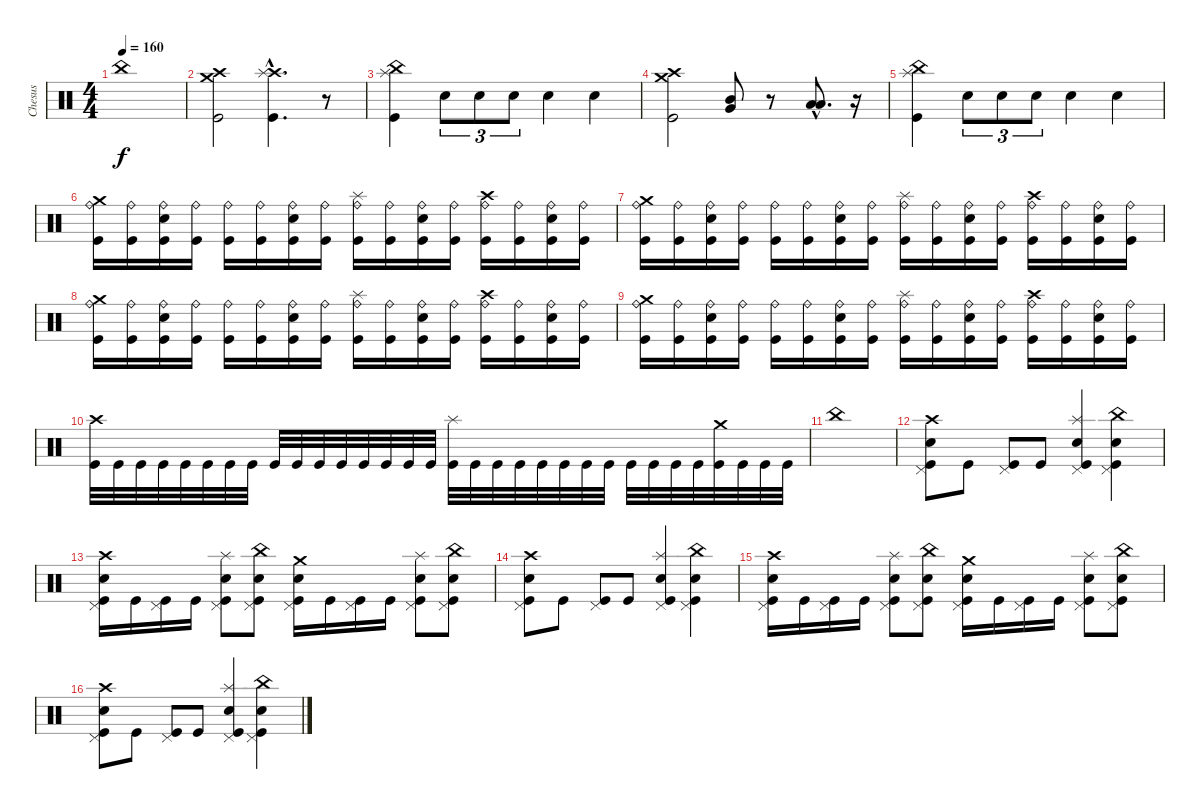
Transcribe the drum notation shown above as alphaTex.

\track ("Chesus" "Chesus") {instrument percussion}
\staff {score}
\articulation defaults
\ts (4 4)
\tempo 160
\clef neutral
\ks c "China (hit)".1{dy f}
|
("Crash high (hit)" "Crash medium (hit)" "Kick (hit)").2 ("Crash high (hit)"{hac} "Splash (hit)"{hac} "Kick (hit)"{hac}).4{d} r.8 |
("Splash (hit)" "China (hit)" "Kick (hit)").4 "Snare (hit) 2".8{tu (3 2)} "Snare (hit) 2".8{tu (3 2)} "Snare (hit) 2".8{tu (3 2)} "Snare (hit) 2".4 "Snare (hit) 2".4 |
("Crash medium (hit)" "Crash high (hit)" "Kick (hit)").2 ("Mid Tom (hit)" "Very Low Tom (hit)").8 r.8 ("Low Tom (hit)"{hac} "Low Floor Tom (hit)"{hac}).8{d} r.16 |
("Splash (hit)" "China (hit)" "Kick (hit)").4 "Snare (hit) 2".8{tu (3 2)} "Snare (hit) 2".8{tu (3 2)} "Snare (hit) 2".8{tu (3 2)} "Snare (hit) 2".4 "Snare (hit) 2".4 |
("Crash medium (hit)" "Ride (bell)" "Kick (hit)").16 ("Ride (bell)" "Kick (hit)").16 ("Ride (bell)" "Snare (hit) 2" "Kick (hit)").16 ("Ride (bell)" "Kick (hit)").16 ("Ride (bell)" "Kick (hit)").16 ("Ride (bell)" "Kick (hit)").16 ("Ride (bell)" "Snare (hit) 2" "Kick (hit)").16 ("Ride (bell)" "Kick (hit)").16 ("Splash (hit)" "Ride (bell)" "Kick (hit)").16 ("Ride (bell)" "Kick (hit)").16 ("Ride (bell)" "Snare (hit) 2" "Kick (hit)").16 ("Ride (bell)" "Kick (hit)").16 ("Crash high (hit)" "Ride (bell)" "Kick (hit)").16 ("Ride (bell)" "Kick (hit)").16 ("Ride (bell)" "Snare (hit) 2" "Kick (hit)").16 ("Ride (bell)" "Kick (hit)").16 |
("Crash medium (hit)" "Ride (bell)" "Kick (hit)").16 ("Ride (bell)" "Kick (hit)").16 ("Ride (bell)" "Snare (hit) 2" "Kick (hit)").16 ("Ride (bell)" "Kick (hit)").16 ("Ride (bell)" "Kick (hit)").16 ("Ride (bell)" "Kick (hit)").16 ("Ride (bell)" "Snare (hit) 2" "Kick (hit)").16 ("Ride (bell)" "Kick (hit)").16 ("Splash (hit)" "Ride (bell)" "Kick (hit)").16 ("Ride (bell)" "Kick (hit)").16 ("Ride (bell)" "Snare (hit) 2" "Kick (hit)").16 ("Ride (bell)" "Kick (hit)").16 ("Crash high (hit)" "Ride (bell)" "Kick (hit)").16 ("Ride (bell)" "Kick (hit)").16 ("Ride (bell)" "Snare (hit) 2" "Kick (hit)").16 ("Ride (bell)" "Kick (hit)").16 |
("Crash medium (hit)" "Ride (bell)" "Kick (hit)").16 ("Ride (bell)" "Kick (hit)").16 ("Ride (bell)" "Snare (hit) 2" "Kick (hit)").16 ("Ride (bell)" "Kick (hit)").16 ("Ride (bell)" "Kick (hit)").16 ("Ride (bell)" "Kick (hit)").16 ("Ride (bell)" "Snare (hit) 2" "Kick (hit)").16 ("Ride (bell)" "Kick (hit)").16 ("Splash (hit)" "Ride (bell)" "Kick (hit)").16 ("Ride (bell)" "Kick (hit)").16 ("Ride (bell)" "Snare (hit) 2" "Kick (hit)").16 ("Ride (bell)" "Kick (hit)").16 ("Crash high (hit)" "Ride (bell)" "Kick (hit)").16 ("Ride (bell)" "Kick (hit)").16 ("Ride (bell)" "Snare (hit) 2" "Kick (hit)").16 ("Ride (bell)" "Kick (hit)").16 |
("Crash medium (hit)" "Ride (bell)" "Kick (hit)").16 ("Ride (bell)" "Kick (hit)").16 ("Ride (bell)" "Snare (hit) 2" "Kick (hit)").16 ("Ride (bell)" "Kick (hit)").16 ("Ride (bell)" "Kick (hit)").16 ("Ride (bell)" "Kick (hit)").16 ("Ride (bell)" "Snare (hit) 2" "Kick (hit)").16 ("Ride (bell)" "Kick (hit)").16 ("Splash (hit)" "Ride (bell)" "Kick (hit)").16 ("Ride (bell)" "Kick (hit)").16 ("Ride (bell)" "Snare (hit) 2" "Kick (hit)").16 ("Ride (bell)" "Kick (hit)").16 ("Crash high (hit)" "Ride (bell)" "Kick (hit)").16 ("Ride (bell)" "Kick (hit)").16 ("Ride (bell)" "Snare (hit) 2" "Kick (hit)").16 ("Ride (bell)" "Kick (hit)").16 |
("Crash high (hit)" "Kick (hit)").32 "Kick (hit)".32 "Kick (hit)".32 "Kick (hit)".32 "Kick (hit)".32 "Kick (hit)".32 "Kick (hit)".32 "Kick (hit)".32 "Kick (hit)".32 "Kick (hit)".32 "Kick (hit)".32 "Kick (hit)".32 "Kick (hit)".32 "Kick (hit)".32 "Kick (hit)".32 "Kick (hit)".32 ("Splash (hit)" "Kick (hit)").32 "Kick (hit)".32 "Kick (hit)".32 "Kick (hit)".32 "Kick (hit)".32 "Kick (hit)".32 "Kick (hit)".32 "Kick (hit)".32 "Kick (hit)".32 "Kick (hit)".32 "Kick (hit)".32 "Kick (hit)".32 ("Crash medium (hit)" "Kick (hit)").32 "Kick (hit)".32 "Kick (hit)".32 "Kick (hit)".32 |
"China (hit)".1 |
("Crash high (hit)" "Pedal Hi-Hat (hit)" "Snare (hit) 2" "Kick (hit)").8 "Kick (hit)".8 ("Pedal Hi-Hat (hit)" "Kick (hit)").8 "Kick (hit)".8 ("Splash (hit)" "Pedal Hi-Hat (hit)" "Snare (hit) 2" "Kick (hit)").4 ("China (hit)" "Pedal Hi-Hat (hit)" "Snare (hit) 2" "Kick (hit)").4 |
("Crash high (hit)" "Pedal Hi-Hat (hit)" "Snare (hit) 2" "Kick (hit)").16 "Kick (hit)".16 ("Pedal Hi-Hat (hit)" "Kick (hit)").16 "Kick (hit)".16 ("Splash (hit)" "Pedal Hi-Hat (hit)" "Snare (hit) 2" "Kick (hit)").8 ("China (hit)" "Pedal Hi-Hat (hit)" "Snare (hit) 2" "Kick (hit)").8 ("Crash medium (hit)" "Pedal Hi-Hat (hit)" "Snare (hit) 2" "Kick (hit)").16 "Kick (hit)".16 ("Pedal Hi-Hat (hit)" "Kick (hit)").16 "Kick (hit)".16 ("Splash (hit)" "Pedal Hi-Hat (hit)" "Snare (hit) 2" "Kick (hit)").8 ("China (hit)" "Pedal Hi-Hat (hit)" "Snare (hit) 2" "Kick (hit)").8 |
("Crash high (hit)" "Pedal Hi-Hat (hit)" "Snare (hit) 2" "Kick (hit)").8 "Kick (hit)".8 ("Pedal Hi-Hat (hit)" "Kick (hit)").8 "Kick (hit)".8 ("Splash (hit)" "Pedal Hi-Hat (hit)" "Snare (hit) 2" "Kick (hit)").4 ("China (hit)" "Pedal Hi-Hat (hit)" "Snare (hit) 2" "Kick (hit)").4 |
("Crash high (hit)" "Pedal Hi-Hat (hit)" "Snare (hit) 2" "Kick (hit)").16 "Kick (hit)".16 ("Pedal Hi-Hat (hit)" "Kick (hit)").16 "Kick (hit)".16 ("Splash (hit)" "Pedal Hi-Hat (hit)" "Snare (hit) 2" "Kick (hit)").8 ("China (hit)" "Pedal Hi-Hat (hit)" "Snare (hit) 2" "Kick (hit)").8 ("Crash medium (hit)" "Pedal Hi-Hat (hit)" "Snare (hit) 2" "Kick (hit)").16 "Kick (hit)".16 ("Pedal Hi-Hat (hit)" "Kick (hit)").16 "Kick (hit)".16 ("Splash (hit)" "Pedal Hi-Hat (hit)" "Snare (hit) 2" "Kick (hit)").8 ("China (hit)" "Pedal Hi-Hat (hit)" "Snare (hit) 2" "Kick (hit)").8 |
("Crash high (hit)" "Pedal Hi-Hat (hit)" "Snare (hit) 2" "Kick (hit)").8 "Kick (hit)".8 ("Pedal Hi-Hat (hit)" "Kick (hit)").8 "Kick (hit)".8 ("Splash (hit)" "Pedal Hi-Hat (hit)" "Snare (hit) 2" "Kick (hit)").4 ("China (hit)" "Pedal Hi-Hat (hit)" "Snare (hit) 2" "Kick (hit)").4
